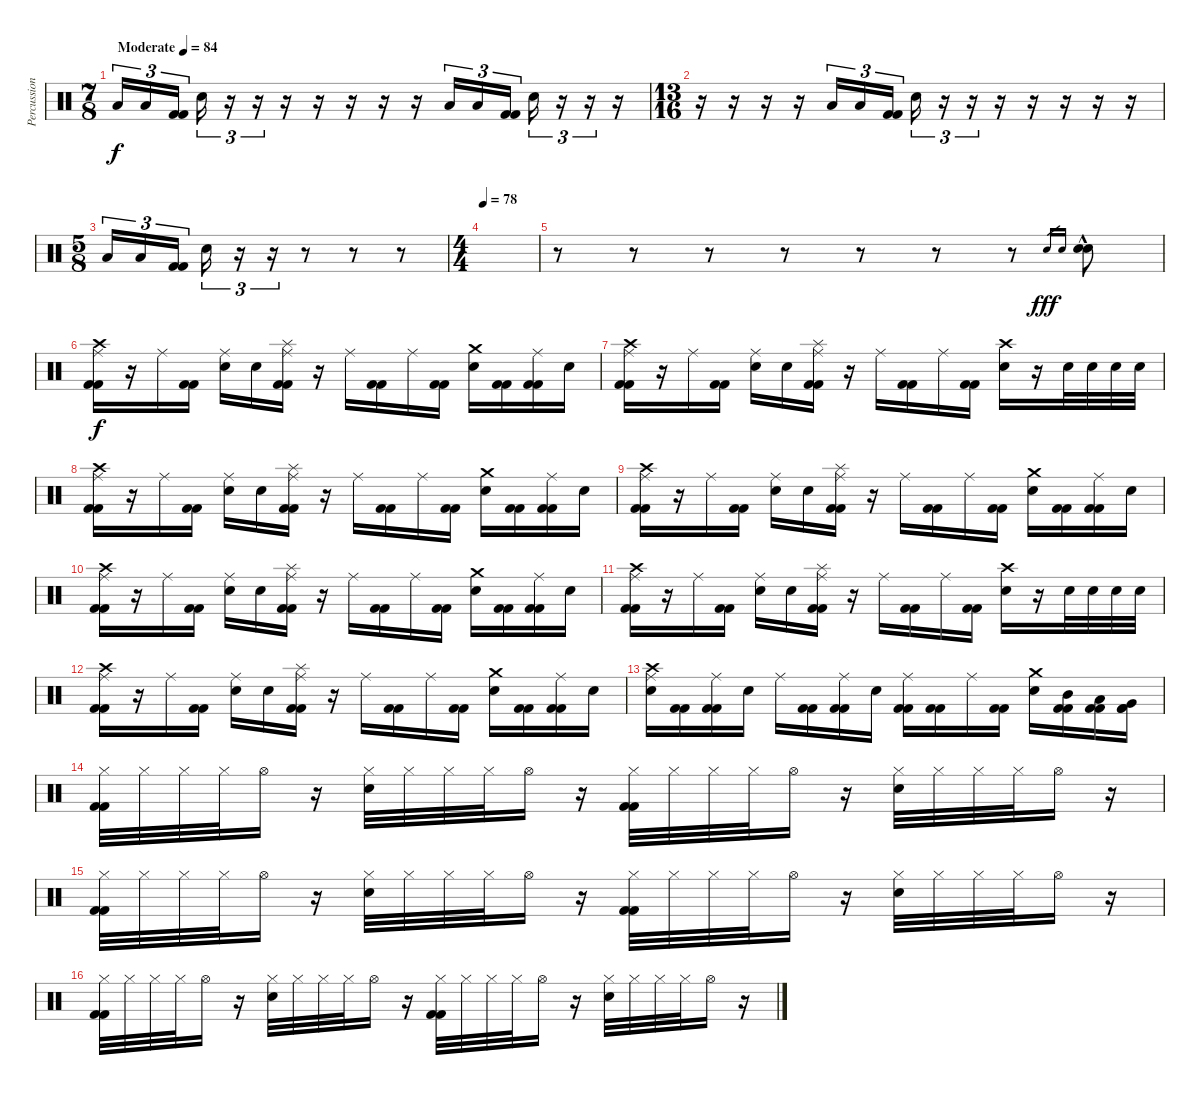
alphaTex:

\track ("Percussion" "Percussion") {instrument percussion}
\staff {score}
\articulation defaults
\ts (7 8)
\tempo (84 "Moderate")
\clef neutral
\ks c "Low Floor Tom (hit)".16{tu (3 2) dy f} "Low Tom (hit)".16{tu (3 2)}
("Kick (hit) 2" "Kick (hit) 2").16{tu (3 2)} "Electric Snare (hit)".16{tu (3 2)} r.16{tu (3 2)} r.16{tu (3 2)} r.16 r.16 r.16 r.16 r.16 "Low Floor Tom (hit)".16{tu (3 2)} "Low Tom (hit)".16{tu (3 2)} ("Kick (hit) 2" "Kick (hit) 2").16{tu (3 2)} "Electric Snare (hit)".16{tu (3 2)} r.16{tu (3 2)} r.16{tu (3 2)} r.16 |
\ts (13 16)
r.16 r.16 r.16 r.16 "Low Floor Tom (hit)".16{tu (3 2)} "Low Tom (hit)".16{tu (3 2)} ("Kick (hit) 2" "Kick (hit) 2").16{tu (3 2)} "Electric Snare (hit)".16{tu (3 2)} r.16{tu (3 2)} r.16{tu (3 2)} r.16 r.16 r.16 r.16 r.16 |
\ts (5 8)
"Low Floor Tom (hit)".16{tu (3 2)} "Low Tom (hit)".16{tu (3 2)} ("Kick (hit) 2" "Kick (hit) 2").16{tu (3 2)} "Electric Snare (hit)".16{tu (3 2)} r.16{tu (3 2)} r.16{tu (3 2)} r.8 r.8 r.8 |
\ts (4 4)
\tempo 78
|
r.8 r.8 r.8 r.8 r.8 r.8 r.8 "Electric Snare (hit)".16{gr dy fff} "Electric Snare (hit)".16{gr} ("Electric Snare (hit)"{hac} "Electric Snare (hit)"{hac}).8 |
("Crash high (hit)" "Ride (middle)" "Kick (hit) 2" "Kick (hit) 2").16{dy f} r.16 "Ride (middle)".16 ("Kick (hit) 2" "Kick (hit) 2").16 ("Ride (middle)" "Electric Snare (hit)").16 "Electric Snare (hit)".16 ("Splash (hit)" "Ride (middle)" "Kick (hit) 2" "Kick (hit) 2").16 r.16 "Ride (middle)".16 ("Kick (hit) 2" "Kick (hit) 2").16 "Ride (middle)".16 ("Kick (hit) 2" "Kick (hit) 2").16 ("Crash medium (hit)" "Electric Snare (hit)").16 ("Kick (hit) 2" "Kick (hit) 2").16 ("Ride (middle)" "Kick (hit) 2" "Kick (hit) 2").16 "Electric Snare (hit)".16 |
("Crash high (hit)" "Ride (middle)" "Kick (hit) 2" "Kick (hit) 2").16 r.16 "Ride (middle)".16 ("Kick (hit) 2" "Kick (hit) 2").16 ("Ride (middle)" "Electric Snare (hit)").16 "Electric Snare (hit)".16 ("Splash (hit)" "Ride (middle)" "Kick (hit) 2" "Kick (hit) 2").16 r.16 "Ride (middle)".16 ("Kick (hit) 2" "Kick (hit) 2").16 "Ride (middle)".16 ("Kick (hit) 2" "Kick (hit) 2").16 ("Crash high (hit)" "Electric Snare (hit)").16 r.16 "Electric Snare (hit)".32 "Electric Snare (hit)".32 "Electric Snare (hit)".32 "Electric Snare (hit)".32 |
("Crash high (hit)" "Ride (middle)" "Kick (hit) 2" "Kick (hit) 2").16 r.16 "Ride (middle)".16 ("Kick (hit) 2" "Kick (hit) 2").16 ("Ride (middle)" "Electric Snare (hit)").16 "Electric Snare (hit)".16 ("Splash (hit)" "Ride (middle)" "Kick (hit) 2" "Kick (hit) 2").16 r.16 "Ride (middle)".16 ("Kick (hit) 2" "Kick (hit) 2").16 "Ride (middle)".16 ("Kick (hit) 2" "Kick (hit) 2").16 ("Crash medium (hit)" "Electric Snare (hit)").16 ("Kick (hit) 2" "Kick (hit) 2").16 ("Ride (middle)" "Kick (hit) 2" "Kick (hit) 2").16 "Electric Snare (hit)".16 |
("Crash high (hit)" "Ride (middle)" "Kick (hit) 2" "Kick (hit) 2").16 r.16 "Ride (middle)".16 ("Kick (hit) 2" "Kick (hit) 2").16 ("Ride (middle)" "Electric Snare (hit)").16 "Electric Snare (hit)".16 ("Splash (hit)" "Ride (middle)" "Kick (hit) 2" "Kick (hit) 2").16 r.16 "Ride (middle)".16 ("Kick (hit) 2" "Kick (hit) 2").16 "Ride (middle)".16 ("Kick (hit) 2" "Kick (hit) 2").16 ("Crash medium (hit)" "Electric Snare (hit)").16 ("Kick (hit) 2" "Kick (hit) 2").16 ("Ride (middle)" "Kick (hit) 2" "Kick (hit) 2").16 "Electric Snare (hit)".16 |
("Crash high (hit)" "Ride (middle)" "Kick (hit) 2" "Kick (hit) 2").16 r.16 "Ride (middle)".16 ("Kick (hit) 2" "Kick (hit) 2").16 ("Ride (middle)" "Electric Snare (hit)").16 "Electric Snare (hit)".16 ("Splash (hit)" "Ride (middle)" "Kick (hit) 2" "Kick (hit) 2").16 r.16 "Ride (middle)".16 ("Kick (hit) 2" "Kick (hit) 2").16 "Ride (middle)".16 ("Kick (hit) 2" "Kick (hit) 2").16 ("Crash medium (hit)" "Electric Snare (hit)").16 ("Kick (hit) 2" "Kick (hit) 2").16 ("Ride (middle)" "Kick (hit) 2" "Kick (hit) 2").16 "Electric Snare (hit)".16 |
("Crash high (hit)" "Ride (middle)" "Kick (hit) 2" "Kick (hit) 2").16 r.16 "Ride (middle)".16 ("Kick (hit) 2" "Kick (hit) 2").16 ("Ride (middle)" "Electric Snare (hit)").16 "Electric Snare (hit)".16 ("Splash (hit)" "Ride (middle)" "Kick (hit) 2" "Kick (hit) 2").16 r.16 "Ride (middle)".16 ("Kick (hit) 2" "Kick (hit) 2").16 "Ride (middle)".16 ("Kick (hit) 2" "Kick (hit) 2").16 ("Crash high (hit)" "Electric Snare (hit)").16 r.16 "Electric Snare (hit)".32 "Electric Snare (hit)".32 "Electric Snare (hit)".32 "Electric Snare (hit)".32 |
("Crash high (hit)" "Ride (middle)" "Kick (hit) 2" "Kick (hit) 2").16 r.16 "Ride (middle)".16 ("Kick (hit) 2" "Kick (hit) 2").16 ("Ride (middle)" "Electric Snare (hit)").16 "Electric Snare (hit)".16 ("Splash (hit)" "Ride (middle)" "Kick (hit) 2" "Kick (hit) 2").16 r.16 "Ride (middle)".16 ("Kick (hit) 2" "Kick (hit) 2").16 "Ride (middle)".16 ("Kick (hit) 2" "Kick (hit) 2").16 ("Crash medium (hit)" "Electric Snare (hit)").16 ("Kick (hit) 2" "Kick (hit) 2").16 ("Ride (middle)" "Kick (hit) 2" "Kick (hit) 2").16 "Electric Snare (hit)".16 |
("Crash high (hit)" "Ride (middle)" "Electric Snare (hit)").16 ("Kick (hit) 2" "Kick (hit) 2").16 ("Ride (middle)" "Kick (hit) 2" "Kick (hit) 2").16 "Electric Snare (hit)".16 "Ride (middle)".16 ("Kick (hit) 2" "Kick (hit) 2").16 ("Ride (middle)" "Kick (hit) 2" "Kick (hit) 2").16 "Electric Snare (hit)".16 ("Ride (middle)" "Kick (hit) 2" "Kick (hit) 2").16 ("Kick (hit) 2" "Kick (hit) 2").16 "Ride (middle)".16 ("Kick (hit) 2" "Kick (hit) 2").16 ("Crash medium (hit)" "Electric Snare (hit)").16 ("Mid Tom (hit)" "Kick (hit) 2" "Kick (hit) 2").16 ("Low Tom (hit)" "Kick (hit) 2" "Kick (hit) 2").16 ("Very Low Tom (hit)" "Kick (hit) 2" "Kick (hit) 2").16 |
("Hi-Hat (closed)" "Kick (hit) 2" "Kick (hit) 2").32 "Hi-Hat (closed)".32 "Hi-Hat (closed)".32 "Hi-Hat (closed)".32 "Hi-Hat (open)".16 r.16 ("Hi-Hat (closed)" "Electric Snare (hit)").32 "Hi-Hat (closed)".32 "Hi-Hat (closed)".32 "Hi-Hat (closed)".32 "Hi-Hat (open)".16 r.16 ("Hi-Hat (closed)" "Kick (hit) 2" "Kick (hit) 2").32 "Hi-Hat (closed)".32 "Hi-Hat (closed)".32 "Hi-Hat (closed)".32 "Hi-Hat (open)".16 r.16 ("Hi-Hat (closed)" "Electric Snare (hit)").32 "Hi-Hat (closed)".32 "Hi-Hat (closed)".32 "Hi-Hat (closed)".32 "Hi-Hat (open)".16 r.16 |
("Hi-Hat (closed)" "Kick (hit) 2" "Kick (hit) 2").32 "Hi-Hat (closed)".32 "Hi-Hat (closed)".32 "Hi-Hat (closed)".32 "Hi-Hat (open)".16 r.16 ("Hi-Hat (closed)" "Electric Snare (hit)").32 "Hi-Hat (closed)".32 "Hi-Hat (closed)".32 "Hi-Hat (closed)".32 "Hi-Hat (open)".16 r.16 ("Hi-Hat (closed)" "Kick (hit) 2" "Kick (hit) 2").32 "Hi-Hat (closed)".32 "Hi-Hat (closed)".32 "Hi-Hat (closed)".32 "Hi-Hat (open)".16 r.16 ("Hi-Hat (closed)" "Electric Snare (hit)").32 "Hi-Hat (closed)".32 "Hi-Hat (closed)".32 "Hi-Hat (closed)".32 "Hi-Hat (open)".16 r.16 |
("Hi-Hat (closed)" "Kick (hit) 2" "Kick (hit) 2").32 "Hi-Hat (closed)".32 "Hi-Hat (closed)".32 "Hi-Hat (closed)".32 "Hi-Hat (open)".16 r.16 ("Hi-Hat (closed)" "Electric Snare (hit)").32 "Hi-Hat (closed)".32 "Hi-Hat (closed)".32 "Hi-Hat (closed)".32 "Hi-Hat (open)".16 r.16 ("Hi-Hat (closed)" "Kick (hit) 2" "Kick (hit) 2").32 "Hi-Hat (closed)".32 "Hi-Hat (closed)".32 "Hi-Hat (closed)".32 "Hi-Hat (open)".16 r.16 ("Hi-Hat (closed)" "Electric Snare (hit)").32 "Hi-Hat (closed)".32 "Hi-Hat (closed)".32 "Hi-Hat (closed)".32 "Hi-Hat (open)".16 r.16
